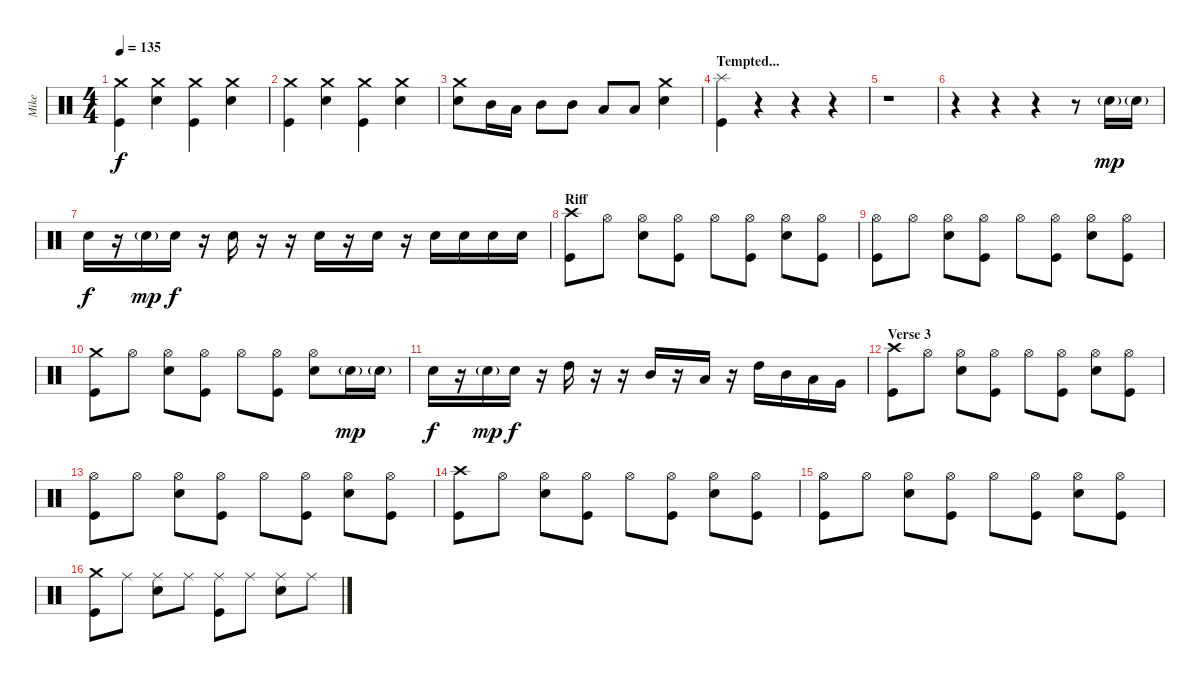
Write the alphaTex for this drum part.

\track ("Mike" "Mike") {instrument percussion}
\staff {score}
\articulation defaults
\ts (4 4)
\tempo 135
\clef neutral
\ks c
("Crash medium (hit)" "Kick (hit)").4{dy f} ("Crash medium (hit)" "Electric Snare (hit)").4 ("Crash medium (hit)" "Kick (hit)").4 ("Crash medium (hit)" "Electric Snare (hit)").4 |
("Crash medium (hit)" "Kick (hit)").4 ("Crash medium (hit)" "Electric Snare (hit)").4 ("Crash medium (hit)" "Kick (hit)").4 ("Crash medium (hit)" "Electric Snare (hit)").4 |
("Crash medium (hit)" "Electric Snare (hit)").8 "Mid Tom (hit)".16 "Low Tom (hit)".16 "Mid Tom (hit)".8 "Mid Tom (hit)".8 "Low Tom (hit)".8 "Low Tom (hit)".8 ("Crash medium (hit)" "Electric Snare (hit)").4 |
\section ("" "Tempted...")
("Splash (hit)" "Kick (hit)").4 r.4 r.4 r.4 |
r.1 |
r.4 r.4 r.4 r.8 "Electric Snare (hit)"{g}.16{dy mp} "Electric Snare (hit)"{g}.16 |
"Electric Snare (hit)".16{dy f} r.16 "Electric Snare (hit)"{g}.16{dy mp} "Electric Snare (hit)".16{dy f} r.16 "Electric Snare (hit)".16 r.16 r.16 "Electric Snare (hit)".16 r.16 "Electric Snare (hit)".16 r.16 "Electric Snare (hit)".16 "Electric Snare (hit)".16 "Electric Snare (hit)".16 "Electric Snare (hit)".16 |
\section ("" "Riff")
("Crash high (hit)" "Kick (hit)").8 "Hi-Hat (open)".8 ("Hi-Hat (open)" "Electric Snare (hit)").8 ("Hi-Hat (open)" "Kick (hit)").8 "Hi-Hat (open)".8 ("Hi-Hat (open)" "Kick (hit)").8 ("Hi-Hat (open)" "Electric Snare (hit)").8 ("Hi-Hat (open)" "Kick (hit)").8 |
("Hi-Hat (open)" "Kick (hit)").8 "Hi-Hat (open)".8 ("Hi-Hat (open)" "Electric Snare (hit)").8 ("Hi-Hat (open)" "Kick (hit)").8 "Hi-Hat (open)".8 ("Hi-Hat (open)" "Kick (hit)").8 ("Hi-Hat (open)" "Electric Snare (hit)").8 ("Hi-Hat (open)" "Kick (hit)").8 |
("Crash medium (hit)" "Kick (hit)").8 "Hi-Hat (open)".8 ("Hi-Hat (open)" "Electric Snare (hit)").8 ("Hi-Hat (open)" "Kick (hit)").8 "Hi-Hat (open)".8 ("Hi-Hat (open)" "Kick (hit)").8 ("Hi-Hat (open)" "Electric Snare (hit)").8 "Electric Snare (hit)"{g}.16{dy mp} "Electric Snare (hit)"{g}.16 |
"Electric Snare (hit)".16{dy f} r.16 "Electric Snare (hit)"{g}.16{dy mp} "Electric Snare (hit)".16{dy f} r.16 "High Tom (hit)".16 r.16 r.16 "Mid Tom (hit)".16 r.16 "Low Tom (hit)".16 r.16 "High Tom (hit)".16 "Mid Tom (hit)".16 "Low Tom (hit)".16 "Very Low Tom (hit)".16 |
\section ("" "Verse 3")
("Crash high (hit)" "Kick (hit)").8 "Hi-Hat (open)".8 ("Hi-Hat (open)" "Electric Snare (hit)").8 ("Hi-Hat (open)" "Kick (hit)").8 "Hi-Hat (open)".8 ("Hi-Hat (open)" "Kick (hit)").8 ("Hi-Hat (open)" "Electric Snare (hit)").8 ("Hi-Hat (open)" "Kick (hit)").8 |
("Hi-Hat (open)" "Kick (hit)").8 "Hi-Hat (open)".8 ("Hi-Hat (open)" "Electric Snare (hit)").8 ("Hi-Hat (open)" "Kick (hit)").8 "Hi-Hat (open)".8 ("Hi-Hat (open)" "Kick (hit)").8 ("Hi-Hat (open)" "Electric Snare (hit)").8 ("Hi-Hat (open)" "Kick (hit)").8 |
("Crash high (hit)" "Kick (hit)").8 "Hi-Hat (open)".8 ("Hi-Hat (open)" "Electric Snare (hit)").8 ("Hi-Hat (open)" "Kick (hit)").8 "Hi-Hat (open)".8 ("Hi-Hat (open)" "Kick (hit)").8 ("Hi-Hat (open)" "Electric Snare (hit)").8 ("Hi-Hat (open)" "Kick (hit)").8 |
("Hi-Hat (open)" "Kick (hit)").8 "Hi-Hat (open)".8 ("Hi-Hat (open)" "Electric Snare (hit)").8 ("Hi-Hat (open)" "Kick (hit)").8 "Hi-Hat (open)".8 ("Hi-Hat (open)" "Kick (hit)").8 ("Hi-Hat (open)" "Electric Snare (hit)").8 ("Hi-Hat (open)" "Kick (hit)").8 |
("Crash medium (hit)" "Kick (hit)").8 "Ride (middle)".8 ("Ride (middle)" "Electric Snare (hit)").8 "Ride (middle)".8 ("Ride (middle)" "Kick (hit)").8 "Ride (middle)".8 ("Ride (middle)" "Electric Snare (hit)").8 "Ride (middle)".8
